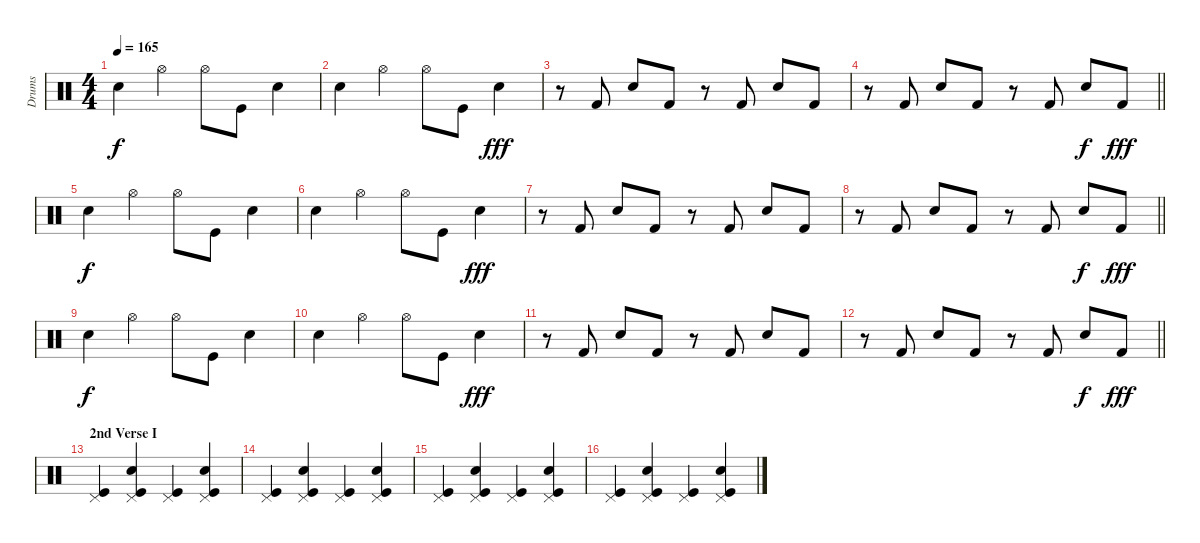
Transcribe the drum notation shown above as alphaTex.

\track ("Drums" "Drums") {instrument percussion}
\staff {score}
\articulation defaults
\ts (4 4)
\tempo 165
\clef neutral
\ks c "Snare (hit) 2".4{dy f} "Hi-Hat (open)".4 "Hi-Hat (open)".8 "Kick (hit)".8 "Snare (hit) 2".4
|
"Snare (hit) 2".4 "Hi-Hat (open)".4 "Hi-Hat (open)".8 "Kick (hit)".8 "Snare (hit) 2".4{dy fff} |
r.8 "Kick (hit) 2".8 "Snare (hit) 2".8 "Kick (hit) 2".8 r.8 "Kick (hit) 2".8 "Snare (hit) 2".8 "Kick (hit) 2".8 |
\barLineRight lightlight
r.8 "Kick (hit) 2".8 "Snare (hit) 2".8 "Kick (hit) 2".8 r.8 "Kick (hit) 2".8 "Snare (hit) 2".8{dy f} "Kick (hit) 2".8{dy fff} |
"Snare (hit) 2".4{dy f} "Hi-Hat (open)".4 "Hi-Hat (open)".8 "Kick (hit)".8 "Snare (hit) 2".4 |
"Snare (hit) 2".4 "Hi-Hat (open)".4 "Hi-Hat (open)".8 "Kick (hit)".8 "Snare (hit) 2".4{dy fff} |
r.8 "Kick (hit) 2".8 "Snare (hit) 2".8 "Kick (hit) 2".8 r.8 "Kick (hit) 2".8 "Snare (hit) 2".8 "Kick (hit) 2".8 |
\barLineRight lightlight
r.8 "Kick (hit) 2".8 "Snare (hit) 2".8 "Kick (hit) 2".8 r.8 "Kick (hit) 2".8 "Snare (hit) 2".8{dy f} "Kick (hit) 2".8{dy fff} |
"Snare (hit) 2".4{dy f} "Hi-Hat (open)".4 "Hi-Hat (open)".8 "Kick (hit)".8 "Snare (hit) 2".4 |
"Snare (hit) 2".4 "Hi-Hat (open)".4 "Hi-Hat (open)".8 "Kick (hit)".8 "Snare (hit) 2".4{dy fff} |
r.8 "Kick (hit) 2".8 "Snare (hit) 2".8 "Kick (hit) 2".8 r.8 "Kick (hit) 2".8 "Snare (hit) 2".8 "Kick (hit) 2".8 |
\barLineRight lightlight
r.8 "Kick (hit) 2".8 "Snare (hit) 2".8 "Kick (hit) 2".8 r.8 "Kick (hit) 2".8 "Snare (hit) 2".8{dy f} "Kick (hit) 2".8{dy fff} |
\section ("" "2nd Verse I")
("Pedal Hi-Hat (hit)" "Kick (hit)").4 ("Snare (hit) 2" "Pedal Hi-Hat (hit)" "Kick (hit)").4 ("Pedal Hi-Hat (hit)" "Kick (hit)").4 ("Snare (hit) 2" "Pedal Hi-Hat (hit)" "Kick (hit)").4 |
("Pedal Hi-Hat (hit)" "Kick (hit)").4 ("Snare (hit) 2" "Pedal Hi-Hat (hit)" "Kick (hit)").4 ("Pedal Hi-Hat (hit)" "Kick (hit)").4 ("Snare (hit) 2" "Pedal Hi-Hat (hit)" "Kick (hit)").4 |
("Pedal Hi-Hat (hit)" "Kick (hit)").4 ("Snare (hit) 2" "Pedal Hi-Hat (hit)" "Kick (hit)").4 ("Pedal Hi-Hat (hit)" "Kick (hit)").4 ("Snare (hit) 2" "Pedal Hi-Hat (hit)" "Kick (hit)").4 |
("Pedal Hi-Hat (hit)" "Kick (hit)").4 ("Snare (hit) 2" "Pedal Hi-Hat (hit)" "Kick (hit)").4 ("Pedal Hi-Hat (hit)" "Kick (hit)").4 ("Snare (hit) 2" "Pedal Hi-Hat (hit)" "Kick (hit)").4
